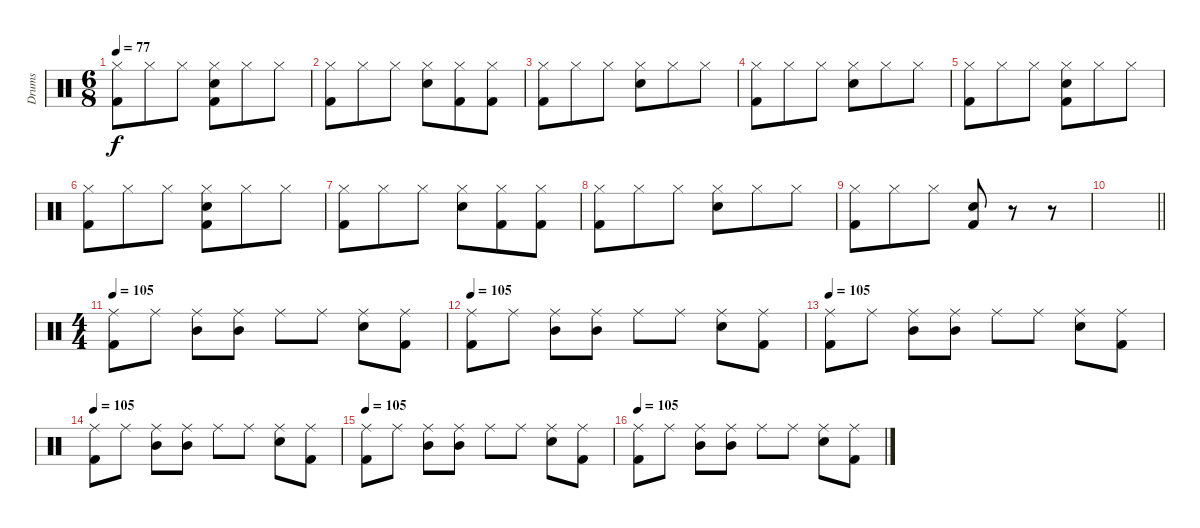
\track ("Drums" "Drums") {instrument percussion}
\staff {score}
\articulation defaults
\ts (6 8)
\tempo 77
\clef neutral
\ks c
("Hi-Hat (closed)" "Kick (hit) 2").8{dy f} "Hi-Hat (closed)".8 "Hi-Hat (closed)".8 ("Hi-Hat (closed)" "Snare (hit) 2" "Kick (hit) 2").8 "Hi-Hat (closed)".8 "Hi-Hat (closed)".8 |
("Hi-Hat (closed)" "Kick (hit) 2").8 "Hi-Hat (closed)".8 "Hi-Hat (closed)".8 ("Hi-Hat (closed)" "Snare (hit) 2").8 ("Hi-Hat (closed)" "Kick (hit) 2").8 ("Hi-Hat (closed)" "Kick (hit) 2").8 |
("Hi-Hat (closed)" "Kick (hit) 2").8 "Hi-Hat (closed)".8 "Hi-Hat (closed)".8 ("Hi-Hat (closed)" "Snare (hit) 2").8 "Hi-Hat (closed)".8 "Hi-Hat (closed)".8 |
("Hi-Hat (closed)" "Kick (hit) 2").8 "Hi-Hat (closed)".8 "Hi-Hat (closed)".8 ("Hi-Hat (closed)" "Snare (hit) 2").8 "Hi-Hat (closed)".8 "Hi-Hat (closed)".8 |
("Hi-Hat (closed)" "Kick (hit) 2").8 "Hi-Hat (closed)".8 "Hi-Hat (closed)".8 ("Hi-Hat (closed)" "Snare (hit) 2" "Kick (hit) 2").8 "Hi-Hat (closed)".8 "Hi-Hat (closed)".8 |
("Hi-Hat (closed)" "Kick (hit) 2").8 "Hi-Hat (closed)".8 "Hi-Hat (closed)".8 ("Hi-Hat (closed)" "Snare (hit) 2" "Kick (hit) 2").8 "Hi-Hat (closed)".8 "Hi-Hat (closed)".8 |
("Hi-Hat (closed)" "Kick (hit) 2").8 "Hi-Hat (closed)".8 "Hi-Hat (closed)".8 ("Hi-Hat (closed)" "Snare (hit) 2").8 ("Hi-Hat (closed)" "Kick (hit) 2").8 ("Hi-Hat (closed)" "Kick (hit) 2").8 |
("Hi-Hat (closed)" "Kick (hit) 2").8 "Hi-Hat (closed)".8 "Hi-Hat (closed)".8 ("Hi-Hat (closed)" "Snare (hit) 2").8 "Hi-Hat (closed)".8 "Hi-Hat (closed)".8 |
("Hi-Hat (closed)" "Kick (hit) 2").8 "Hi-Hat (closed)".8 "Hi-Hat (closed)".8 ("Snare (hit) 2" "Kick (hit) 2").8 r.8 r.8 |
\barLineRight lightlight
|
\ts (4 4)
\tempo 105
("Ride (middle)" "Kick (hit) 2").8 "Ride (middle)".8 ("Ride (middle)" "Mid Tom (hit)").8 ("Ride (middle)" "Mid Tom (hit)").8 "Ride (middle)".8 "Ride (middle)".8 ("Ride (middle)" "Snare (hit) 2").8 ("Ride (middle)" "Kick (hit) 2").8 |
\tempo 105
("Ride (middle)" "Kick (hit) 2").8 "Ride (middle)".8 ("Ride (middle)" "Mid Tom (hit)").8 ("Ride (middle)" "Mid Tom (hit)").8 "Ride (middle)".8 "Ride (middle)".8 ("Ride (middle)" "Snare (hit) 2").8 ("Ride (middle)" "Kick (hit) 2").8 |
\tempo 105
("Ride (middle)" "Kick (hit) 2").8 "Ride (middle)".8 ("Ride (middle)" "Mid Tom (hit)").8 ("Ride (middle)" "Mid Tom (hit)").8 "Ride (middle)".8 "Ride (middle)".8 ("Ride (middle)" "Snare (hit) 2").8 ("Ride (middle)" "Kick (hit) 2").8 |
\tempo 105
("Ride (middle)" "Kick (hit) 2").8 "Ride (middle)".8 ("Ride (middle)" "Mid Tom (hit)").8 ("Ride (middle)" "Mid Tom (hit)").8 "Ride (middle)".8 "Ride (middle)".8 ("Ride (middle)" "Snare (hit) 2").8 ("Ride (middle)" "Kick (hit) 2").8 |
\tempo 105
("Ride (middle)" "Kick (hit) 2").8 "Ride (middle)".8 ("Ride (middle)" "Mid Tom (hit)").8 ("Ride (middle)" "Mid Tom (hit)").8 "Ride (middle)".8 "Ride (middle)".8 ("Ride (middle)" "Snare (hit) 2").8 ("Ride (middle)" "Kick (hit) 2").8 |
\tempo 105
("Ride (middle)" "Kick (hit) 2").8 "Ride (middle)".8 ("Ride (middle)" "Mid Tom (hit)").8 ("Ride (middle)" "Mid Tom (hit)").8 "Ride (middle)".8 "Ride (middle)".8 ("Ride (middle)" "Snare (hit) 2").8 ("Ride (middle)" "Kick (hit) 2").8
